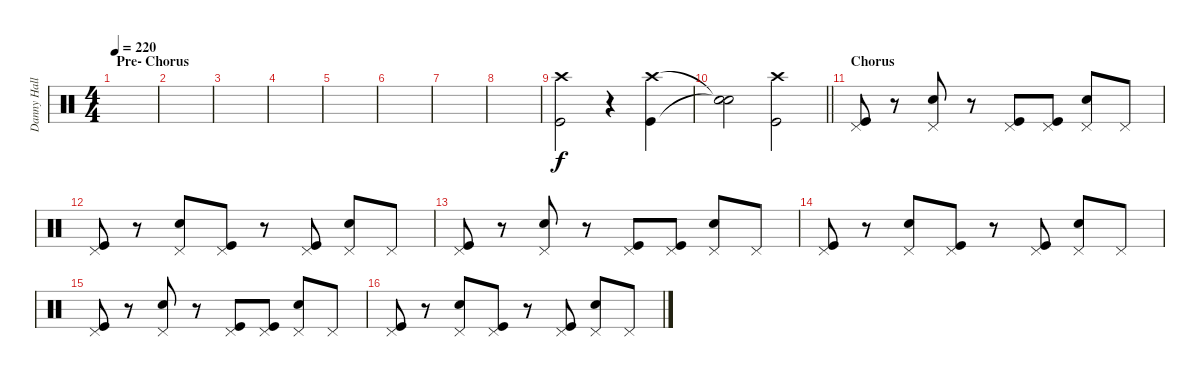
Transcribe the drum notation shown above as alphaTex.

\track ("Danny Hall" "Danny Hall") {instrument percussion}
\staff {score}
\articulation defaults
\ts (4 4)
\section ("" "Pre- Chorus")
\tempo 220
\clef neutral
\ks c
|
|
|
|
|
|
|
|
("Crash high (hit)" "Kick (hit)").2 r.4 ("Crash high (hit)" "Kick (hit)").4 |
\barLineRight lightlight
("Snare (hit)"{t} "Snare (hit)"{t}).2 ("Crash high (hit)" "Kick (hit)").2 |
\section ("" "Chorus")
("Pedal Hi-Hat (hit)" "Kick (hit)").8 r.8 ("Pedal Hi-Hat (hit)" "Snare (hit) 2").8 r.8 ("Pedal Hi-Hat (hit)" "Kick (hit)").8 ("Pedal Hi-Hat (hit)" "Kick (hit)").8 ("Pedal Hi-Hat (hit)" "Snare (hit) 2").8 "Pedal Hi-Hat (hit)".8 |
("Pedal Hi-Hat (hit)" "Kick (hit)").8 r.8 ("Pedal Hi-Hat (hit)" "Snare (hit) 2").8 ("Pedal Hi-Hat (hit)" "Kick (hit)").8 r.8 ("Pedal Hi-Hat (hit)" "Kick (hit)").8 ("Pedal Hi-Hat (hit)" "Snare (hit) 2").8 "Pedal Hi-Hat (hit)".8 |
("Pedal Hi-Hat (hit)" "Kick (hit)").8 r.8 ("Pedal Hi-Hat (hit)" "Snare (hit) 2").8 r.8 ("Pedal Hi-Hat (hit)" "Kick (hit)").8 ("Pedal Hi-Hat (hit)" "Kick (hit)").8 ("Pedal Hi-Hat (hit)" "Snare (hit) 2").8 "Pedal Hi-Hat (hit)".8 |
("Pedal Hi-Hat (hit)" "Kick (hit)").8 r.8 ("Pedal Hi-Hat (hit)" "Snare (hit) 2").8 ("Pedal Hi-Hat (hit)" "Kick (hit)").8 r.8 ("Pedal Hi-Hat (hit)" "Kick (hit)").8 ("Pedal Hi-Hat (hit)" "Snare (hit) 2").8 "Pedal Hi-Hat (hit)".8 |
("Pedal Hi-Hat (hit)" "Kick (hit)").8 r.8 ("Pedal Hi-Hat (hit)" "Snare (hit) 2").8 r.8 ("Pedal Hi-Hat (hit)" "Kick (hit)").8 ("Pedal Hi-Hat (hit)" "Kick (hit)").8 ("Pedal Hi-Hat (hit)" "Snare (hit) 2").8 "Pedal Hi-Hat (hit)".8 |
("Pedal Hi-Hat (hit)" "Kick (hit)").8 r.8 ("Pedal Hi-Hat (hit)" "Snare (hit) 2").8 ("Pedal Hi-Hat (hit)" "Kick (hit)").8 r.8 ("Pedal Hi-Hat (hit)" "Kick (hit)").8 ("Pedal Hi-Hat (hit)" "Snare (hit) 2").8 "Pedal Hi-Hat (hit)".8
